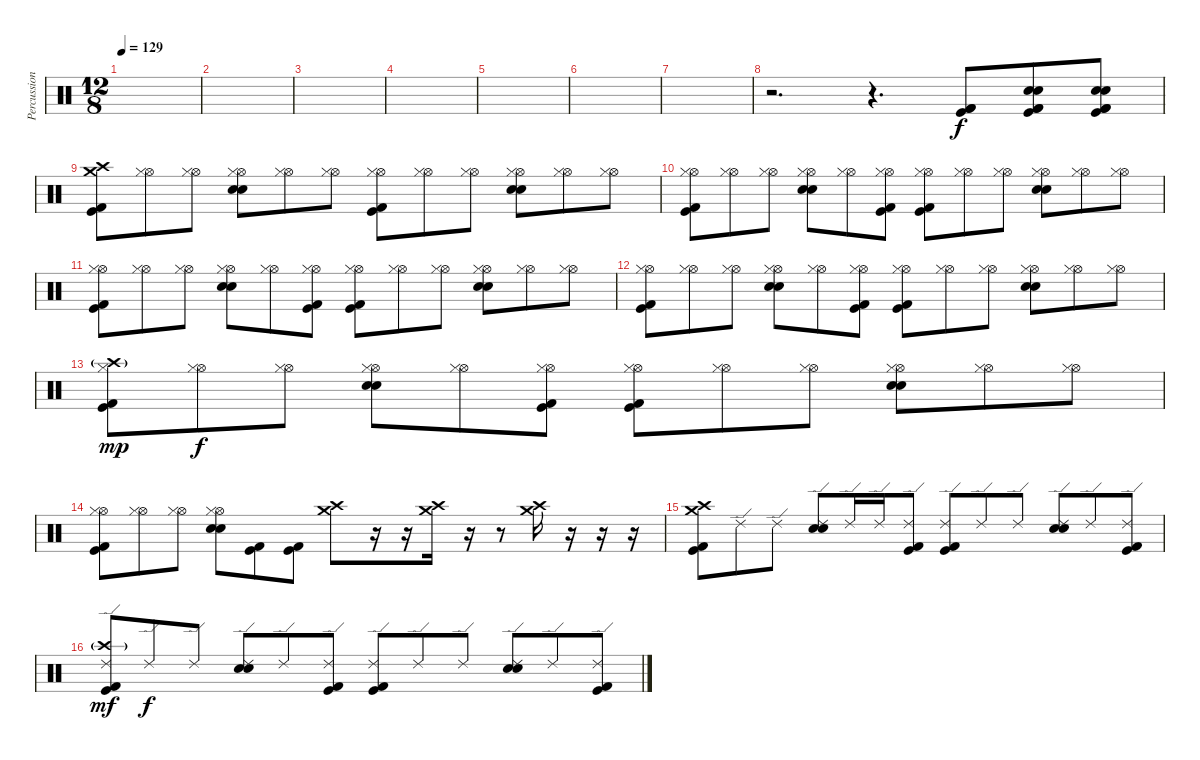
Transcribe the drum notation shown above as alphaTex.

\track ("Percussion" "Percussion") {instrument percussion}
\staff {score}
\articulation defaults
\ts (12 8)
\tempo 129
\clef neutral
\ks c
|
|
|
|
|
|
|
r.2{d} r.4{d} ("Kick (hit)" "Kick (hit) 2" "Kick (hit) 2").8 ("Electric Snare (hit)" "Electric Snare (hit)" "Kick (hit)" "Kick (hit) 2" "Kick (hit) 2").8 ("Electric Snare (hit)" "Electric Snare (hit)" "Kick (hit)" "Kick (hit) 2" "Kick (hit) 2").8 |
("Crash high (hit)" "Crash medium (hit)" "Kick (hit)" "Kick (hit) 2").8 ("Hi-Hat (open)" "Hi-Hat (closed)").8 ("Hi-Hat (open)" "Hi-Hat (closed)").8 ("Hi-Hat (open)" "Hi-Hat (closed)" "Electric Snare (hit)" "Electric Snare (hit)").8 ("Hi-Hat (open)" "Hi-Hat (closed)").8 ("Hi-Hat (open)" "Hi-Hat (closed)").8 ("Hi-Hat (open)" "Hi-Hat (closed)" "Kick (hit)" "Kick (hit) 2").8 ("Hi-Hat (open)" "Hi-Hat (closed)").8 ("Hi-Hat (open)" "Hi-Hat (closed)").8 ("Hi-Hat (open)" "Hi-Hat (closed)" "Electric Snare (hit)" "Electric Snare (hit)").8 ("Hi-Hat (open)" "Hi-Hat (closed)").8 ("Hi-Hat (open)" "Hi-Hat (closed)").8 |
("Hi-Hat (open)" "Hi-Hat (closed)" "Kick (hit)" "Kick (hit) 2").8 ("Hi-Hat (open)" "Hi-Hat (closed)").8 ("Hi-Hat (open)" "Hi-Hat (closed)").8 ("Hi-Hat (open)" "Hi-Hat (closed)" "Electric Snare (hit)" "Electric Snare (hit)").8 ("Hi-Hat (open)" "Hi-Hat (closed)").8 ("Hi-Hat (open)" "Hi-Hat (closed)" "Kick (hit)" "Kick (hit) 2").8 ("Hi-Hat (open)" "Hi-Hat (closed)" "Kick (hit)" "Kick (hit) 2").8 ("Hi-Hat (open)" "Hi-Hat (closed)").8 ("Hi-Hat (open)" "Hi-Hat (closed)").8 ("Hi-Hat (open)" "Hi-Hat (closed)" "Electric Snare (hit)" "Electric Snare (hit)").8 ("Hi-Hat (open)" "Hi-Hat (closed)").8 ("Hi-Hat (open)" "Hi-Hat (closed)").8 |
("Hi-Hat (open)" "Hi-Hat (closed)" "Kick (hit)" "Kick (hit) 2").8 ("Hi-Hat (open)" "Hi-Hat (closed)").8 ("Hi-Hat (open)" "Hi-Hat (closed)").8 ("Hi-Hat (open)" "Hi-Hat (closed)" "Electric Snare (hit)" "Electric Snare (hit)").8 ("Hi-Hat (open)" "Hi-Hat (closed)").8 ("Hi-Hat (open)" "Hi-Hat (closed)" "Kick (hit)" "Kick (hit) 2").8 ("Hi-Hat (open)" "Hi-Hat (closed)" "Kick (hit)" "Kick (hit) 2").8 ("Hi-Hat (open)" "Hi-Hat (closed)").8 ("Hi-Hat (open)" "Hi-Hat (closed)").8 ("Hi-Hat (open)" "Hi-Hat (closed)" "Electric Snare (hit)" "Electric Snare (hit)").8 ("Hi-Hat (open)" "Hi-Hat (closed)").8 ("Hi-Hat (open)" "Hi-Hat (closed)").8 |
("Hi-Hat (open)" "Hi-Hat (closed)" "Kick (hit)" "Kick (hit) 2").8 ("Hi-Hat (open)" "Hi-Hat (closed)").8 ("Hi-Hat (open)" "Hi-Hat (closed)").8 ("Hi-Hat (open)" "Hi-Hat (closed)" "Electric Snare (hit)" "Electric Snare (hit)").8 ("Hi-Hat (open)" "Hi-Hat (closed)").8 ("Hi-Hat (open)" "Hi-Hat (closed)" "Kick (hit)" "Kick (hit) 2").8 ("Hi-Hat (open)" "Hi-Hat (closed)" "Kick (hit)" "Kick (hit) 2").8 ("Hi-Hat (open)" "Hi-Hat (closed)").8 ("Hi-Hat (open)" "Hi-Hat (closed)").8 ("Hi-Hat (open)" "Hi-Hat (closed)" "Electric Snare (hit)" "Electric Snare (hit)").8 ("Hi-Hat (open)" "Hi-Hat (closed)").8 ("Hi-Hat (open)" "Hi-Hat (closed)").8 |
("Crash high (hit)"{g} "Hi-Hat (closed)" "Kick (hit)" "Kick (hit) 2").8{dy mp} ("Hi-Hat (open)" "Hi-Hat (closed)").8{dy f} ("Hi-Hat (open)" "Hi-Hat (closed)").8 ("Hi-Hat (open)" "Hi-Hat (closed)" "Electric Snare (hit)" "Electric Snare (hit)").8 ("Hi-Hat (open)" "Hi-Hat (closed)").8 ("Hi-Hat (open)" "Hi-Hat (closed)" "Kick (hit)" "Kick (hit) 2").8 ("Hi-Hat (open)" "Hi-Hat (closed)" "Kick (hit)" "Kick (hit) 2").8 ("Hi-Hat (open)" "Hi-Hat (closed)").8 ("Hi-Hat (open)" "Hi-Hat (closed)").8 ("Hi-Hat (open)" "Hi-Hat (closed)" "Electric Snare (hit)" "Electric Snare (hit)").8 ("Hi-Hat (open)" "Hi-Hat (closed)").8 ("Hi-Hat (open)" "Hi-Hat (closed)").8 |
("Hi-Hat (open)" "Hi-Hat (closed)" "Kick (hit)" "Kick (hit) 2").8 ("Hi-Hat (open)" "Hi-Hat (closed)").8 ("Hi-Hat (open)" "Hi-Hat (closed)").8 ("Hi-Hat (open)" "Hi-Hat (closed)" "Electric Snare (hit)" "Electric Snare (hit)").8 ("Kick (hit)" "Kick (hit) 2").8 ("Kick (hit)" "Kick (hit) 2").8 ("Crash high (hit)" "Crash medium (hit)").8 r.16 r.16 ("Crash high (hit)" "Crash medium (hit)").16 r.16 r.8 ("Crash high (hit)" "Crash medium (hit)").16 r.16 r.16 r.16 |
("Crash high (hit)" "Crash medium (hit)" "Kick (hit)" "Kick (hit) 2").8 "Ride (edge) 2".8 "Ride (edge) 2".8 ("Ride (edge) 2" "Electric Snare (hit)" "Electric Snare (hit)").8 "Ride (edge) 2".16 "Ride (edge) 2".16 ("Ride (edge) 2" "Kick (hit)" "Kick (hit) 2").8 ("Ride (edge) 2" "Kick (hit)" "Kick (hit) 2").8 "Ride (edge) 2".8 "Ride (edge) 2".8 ("Ride (edge) 2" "Electric Snare (hit)" "Electric Snare (hit)").8 "Ride (edge) 2".8 ("Ride (edge) 2" "Kick (hit)" "Kick (hit) 2").8 |
("Ride (edge) 2" "Crash high (hit)"{g} "Kick (hit)" "Kick (hit) 2").8{dy mf} "Ride (edge) 2".8{dy f} "Ride (edge) 2".8 ("Ride (edge) 2" "Electric Snare (hit)" "Electric Snare (hit)").8 "Ride (edge) 2".8 ("Ride (edge) 2" "Kick (hit)" "Kick (hit) 2").8 ("Ride (edge) 2" "Kick (hit)" "Kick (hit) 2").8 "Ride (edge) 2".8 "Ride (edge) 2".8 ("Ride (edge) 2" "Electric Snare (hit)" "Electric Snare (hit)").8 "Ride (edge) 2".8 ("Ride (edge) 2" "Kick (hit)" "Kick (hit) 2").8
